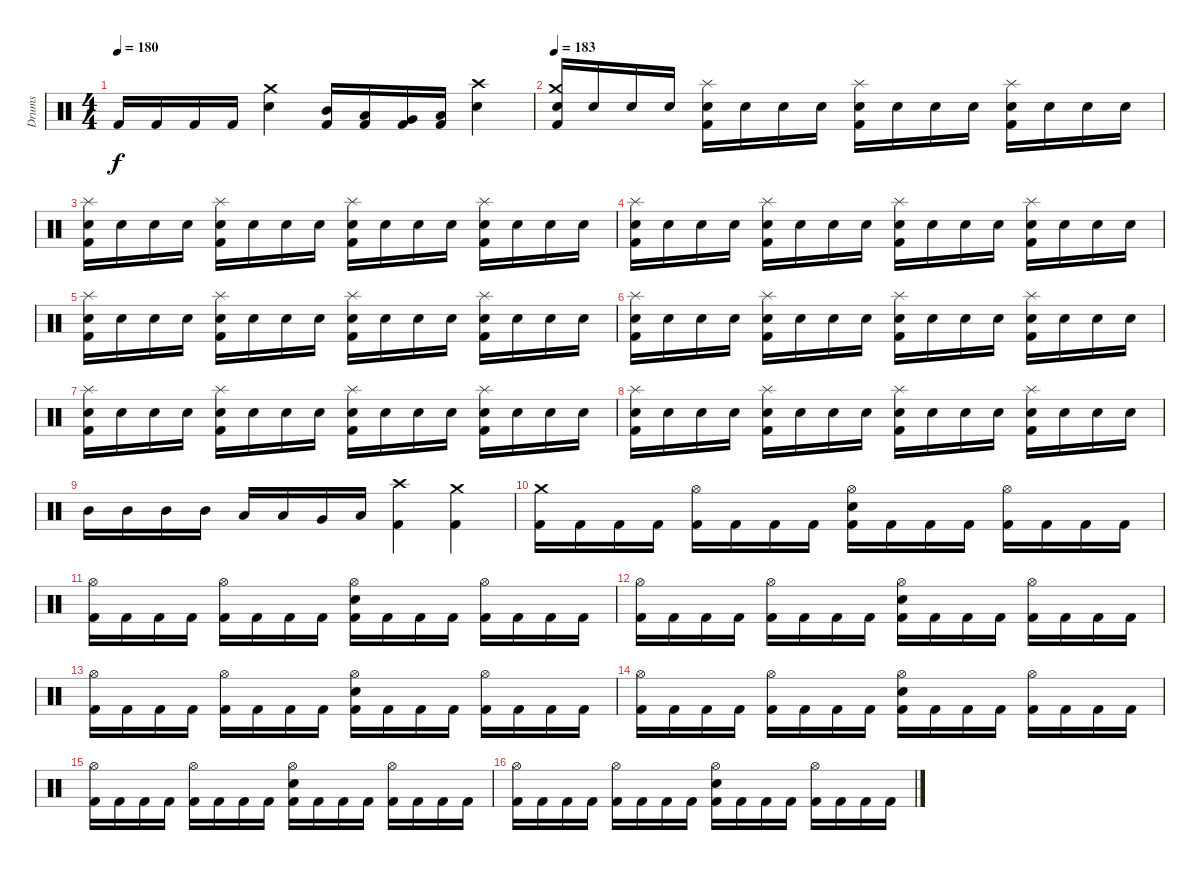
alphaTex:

\track ("Drums" "Drums") {instrument percussion}
\staff {score}
\articulation defaults
\ts (4 4)
\tempo 180
\clef neutral
\ks c "Kick (hit) 2".16{dy f} "Kick (hit) 2".16 "Kick (hit) 2".16 "Kick (hit) 2".16
("Crash medium (hit)" "Electric Snare (hit)").4 ("Mid Tom (hit)" "Kick (hit) 2").16 ("Low Tom (hit)" "Kick (hit) 2").16 ("Very Low Tom (hit)" "Kick (hit) 2").16 ("Low Floor Tom (hit)" "Kick (hit) 2").16 ("Crash high (hit)" "Electric Snare (hit)").4 |
\tempo 183
("Crash medium (hit)" "Electric Snare (hit)" "Kick (hit) 2").16 "Electric Snare (hit)".16 "Electric Snare (hit)".16 "Electric Snare (hit)".16 ("Splash (hit)" "Electric Snare (hit)" "Kick (hit) 2").16 "Electric Snare (hit)".16 "Electric Snare (hit)".16 "Electric Snare (hit)".16 ("Splash (hit)" "Electric Snare (hit)" "Kick (hit) 2").16 "Electric Snare (hit)".16 "Electric Snare (hit)".16 "Electric Snare (hit)".16 ("Splash (hit)" "Electric Snare (hit)" "Kick (hit) 2").16 "Electric Snare (hit)".16 "Electric Snare (hit)".16 "Electric Snare (hit)".16 |
("Splash (hit)" "Electric Snare (hit)" "Kick (hit) 2").16 "Electric Snare (hit)".16 "Electric Snare (hit)".16 "Electric Snare (hit)".16 ("Splash (hit)" "Electric Snare (hit)" "Kick (hit) 2").16 "Electric Snare (hit)".16 "Electric Snare (hit)".16 "Electric Snare (hit)".16 ("Splash (hit)" "Electric Snare (hit)" "Kick (hit) 2").16 "Electric Snare (hit)".16 "Electric Snare (hit)".16 "Electric Snare (hit)".16 ("Splash (hit)" "Electric Snare (hit)" "Kick (hit) 2").16 "Electric Snare (hit)".16 "Electric Snare (hit)".16 "Electric Snare (hit)".16 |
("Splash (hit)" "Electric Snare (hit)" "Kick (hit) 2").16 "Electric Snare (hit)".16 "Electric Snare (hit)".16 "Electric Snare (hit)".16 ("Splash (hit)" "Electric Snare (hit)" "Kick (hit) 2").16 "Electric Snare (hit)".16 "Electric Snare (hit)".16 "Electric Snare (hit)".16 ("Splash (hit)" "Electric Snare (hit)" "Kick (hit) 2").16 "Electric Snare (hit)".16 "Electric Snare (hit)".16 "Electric Snare (hit)".16 ("Splash (hit)" "Electric Snare (hit)" "Kick (hit) 2").16 "Electric Snare (hit)".16 "Electric Snare (hit)".16 "Electric Snare (hit)".16 |
("Splash (hit)" "Electric Snare (hit)" "Kick (hit) 2").16 "Electric Snare (hit)".16 "Electric Snare (hit)".16 "Electric Snare (hit)".16 ("Splash (hit)" "Electric Snare (hit)" "Kick (hit) 2").16 "Electric Snare (hit)".16 "Electric Snare (hit)".16 "Electric Snare (hit)".16 ("Splash (hit)" "Electric Snare (hit)" "Kick (hit) 2").16 "Electric Snare (hit)".16 "Electric Snare (hit)".16 "Electric Snare (hit)".16 ("Splash (hit)" "Electric Snare (hit)" "Kick (hit) 2").16 "Electric Snare (hit)".16 "Electric Snare (hit)".16 "Electric Snare (hit)".16 |
("Splash (hit)" "Electric Snare (hit)" "Kick (hit) 2").16 "Electric Snare (hit)".16 "Electric Snare (hit)".16 "Electric Snare (hit)".16 ("Splash (hit)" "Electric Snare (hit)" "Kick (hit) 2").16 "Electric Snare (hit)".16 "Electric Snare (hit)".16 "Electric Snare (hit)".16 ("Splash (hit)" "Electric Snare (hit)" "Kick (hit) 2").16 "Electric Snare (hit)".16 "Electric Snare (hit)".16 "Electric Snare (hit)".16 ("Splash (hit)" "Electric Snare (hit)" "Kick (hit) 2").16 "Electric Snare (hit)".16 "Electric Snare (hit)".16 "Electric Snare (hit)".16 |
("Splash (hit)" "Electric Snare (hit)" "Kick (hit) 2").16 "Electric Snare (hit)".16 "Electric Snare (hit)".16 "Electric Snare (hit)".16 ("Splash (hit)" "Electric Snare (hit)" "Kick (hit) 2").16 "Electric Snare (hit)".16 "Electric Snare (hit)".16 "Electric Snare (hit)".16 ("Splash (hit)" "Electric Snare (hit)" "Kick (hit) 2").16 "Electric Snare (hit)".16 "Electric Snare (hit)".16 "Electric Snare (hit)".16 ("Splash (hit)" "Electric Snare (hit)" "Kick (hit) 2").16 "Electric Snare (hit)".16 "Electric Snare (hit)".16 "Electric Snare (hit)".16 |
("Splash (hit)" "Electric Snare (hit)" "Kick (hit) 2").16 "Electric Snare (hit)".16 "Electric Snare (hit)".16 "Electric Snare (hit)".16 ("Splash (hit)" "Electric Snare (hit)" "Kick (hit) 2").16 "Electric Snare (hit)".16 "Electric Snare (hit)".16 "Electric Snare (hit)".16 ("Splash (hit)" "Electric Snare (hit)" "Kick (hit) 2").16 "Electric Snare (hit)".16 "Electric Snare (hit)".16 "Electric Snare (hit)".16 ("Splash (hit)" "Electric Snare (hit)" "Kick (hit) 2").16 "Electric Snare (hit)".16 "Electric Snare (hit)".16 "Electric Snare (hit)".16 |
"Mid Tom (hit)".16 "Mid Tom (hit)".16 "Mid Tom (hit)".16 "Mid Tom (hit)".16 "Low Tom (hit)".16 "Low Tom (hit)".16 "Very Low Tom (hit)".16 "Low Floor Tom (hit)".16 ("Crash high (hit)" "Kick (hit) 2").4 ("Crash medium (hit)" "Kick (hit) 2").4 |
("Crash medium (hit)" "Kick (hit) 2").16 "Kick (hit) 2".16 "Kick (hit) 2".16 "Kick (hit) 2".16 ("Hi-Hat (open)" "Kick (hit) 2").16 "Kick (hit) 2".16 "Kick (hit) 2".16 "Kick (hit) 2".16 ("Hi-Hat (open)" "Electric Snare (hit)" "Kick (hit) 2").16 "Kick (hit) 2".16 "Kick (hit) 2".16 "Kick (hit) 2".16 ("Hi-Hat (open)" "Kick (hit) 2").16 "Kick (hit) 2".16 "Kick (hit) 2".16 "Kick (hit) 2".16 |
("Hi-Hat (open)" "Kick (hit) 2").16 "Kick (hit) 2".16 "Kick (hit) 2".16 "Kick (hit) 2".16 ("Hi-Hat (open)" "Kick (hit) 2").16 "Kick (hit) 2".16 "Kick (hit) 2".16 "Kick (hit) 2".16 ("Hi-Hat (open)" "Electric Snare (hit)" "Kick (hit) 2").16 "Kick (hit) 2".16 "Kick (hit) 2".16 "Kick (hit) 2".16 ("Hi-Hat (open)" "Kick (hit) 2").16 "Kick (hit) 2".16 "Kick (hit) 2".16 "Kick (hit) 2".16 |
("Hi-Hat (open)" "Kick (hit) 2").16 "Kick (hit) 2".16 "Kick (hit) 2".16 "Kick (hit) 2".16 ("Hi-Hat (open)" "Kick (hit) 2").16 "Kick (hit) 2".16 "Kick (hit) 2".16 "Kick (hit) 2".16 ("Hi-Hat (open)" "Electric Snare (hit)" "Kick (hit) 2").16 "Kick (hit) 2".16 "Kick (hit) 2".16 "Kick (hit) 2".16 ("Hi-Hat (open)" "Kick (hit) 2").16 "Kick (hit) 2".16 "Kick (hit) 2".16 "Kick (hit) 2".16 |
("Hi-Hat (open)" "Kick (hit) 2").16 "Kick (hit) 2".16 "Kick (hit) 2".16 "Kick (hit) 2".16 ("Hi-Hat (open)" "Kick (hit) 2").16 "Kick (hit) 2".16 "Kick (hit) 2".16 "Kick (hit) 2".16 ("Hi-Hat (open)" "Electric Snare (hit)" "Kick (hit) 2").16 "Kick (hit) 2".16 "Kick (hit) 2".16 "Kick (hit) 2".16 ("Hi-Hat (open)" "Kick (hit) 2").16 "Kick (hit) 2".16 "Kick (hit) 2".16 "Kick (hit) 2".16 |
("Hi-Hat (open)" "Kick (hit) 2").16 "Kick (hit) 2".16 "Kick (hit) 2".16 "Kick (hit) 2".16 ("Hi-Hat (open)" "Kick (hit) 2").16 "Kick (hit) 2".16 "Kick (hit) 2".16 "Kick (hit) 2".16 ("Hi-Hat (open)" "Electric Snare (hit)" "Kick (hit) 2").16 "Kick (hit) 2".16 "Kick (hit) 2".16 "Kick (hit) 2".16 ("Hi-Hat (open)" "Kick (hit) 2").16 "Kick (hit) 2".16 "Kick (hit) 2".16 "Kick (hit) 2".16 |
("Hi-Hat (open)" "Kick (hit) 2").16 "Kick (hit) 2".16 "Kick (hit) 2".16 "Kick (hit) 2".16 ("Hi-Hat (open)" "Kick (hit) 2").16 "Kick (hit) 2".16 "Kick (hit) 2".16 "Kick (hit) 2".16 ("Hi-Hat (open)" "Electric Snare (hit)" "Kick (hit) 2").16 "Kick (hit) 2".16 "Kick (hit) 2".16 "Kick (hit) 2".16 ("Hi-Hat (open)" "Kick (hit) 2").16 "Kick (hit) 2".16 "Kick (hit) 2".16 "Kick (hit) 2".16 |
("Hi-Hat (open)" "Kick (hit) 2").16 "Kick (hit) 2".16 "Kick (hit) 2".16 "Kick (hit) 2".16 ("Hi-Hat (open)" "Kick (hit) 2").16 "Kick (hit) 2".16 "Kick (hit) 2".16 "Kick (hit) 2".16 ("Hi-Hat (open)" "Electric Snare (hit)" "Kick (hit) 2").16 "Kick (hit) 2".16 "Kick (hit) 2".16 "Kick (hit) 2".16 ("Hi-Hat (open)" "Kick (hit) 2").16 "Kick (hit) 2".16 "Kick (hit) 2".16 "Kick (hit) 2".16
